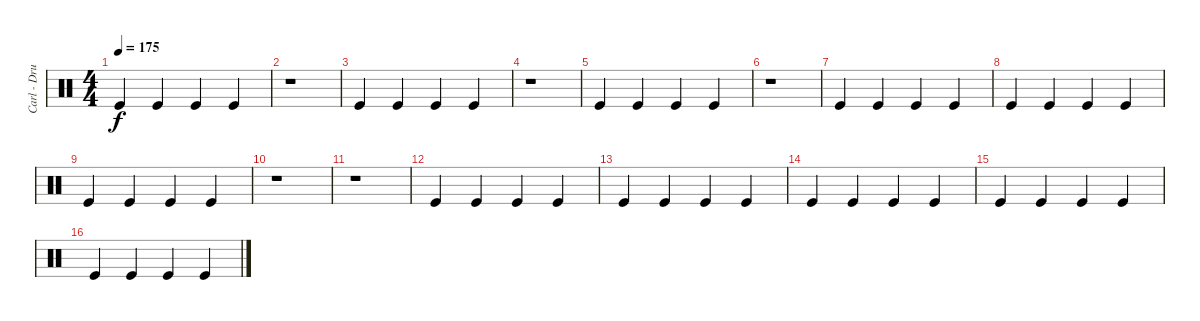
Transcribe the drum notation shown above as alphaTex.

\track ("Carl - Drums I" "Carl - Dru") {instrument percussion}
\staff {score}
\articulation defaults
\ts (4 4)
\tempo 175
\clef neutral
\ks c "Kick (hit)".4{dy f} "Kick (hit)".4 "Kick (hit)".4 "Kick (hit)".4
|
r.1 |
"Kick (hit)".4 "Kick (hit)".4 "Kick (hit)".4 "Kick (hit)".4 |
r.1 |
"Kick (hit)".4 "Kick (hit)".4 "Kick (hit)".4 "Kick (hit)".4 |
r.1 |
"Kick (hit)".4 "Kick (hit)".4 "Kick (hit)".4 "Kick (hit)".4 |
"Kick (hit)".4 "Kick (hit)".4 "Kick (hit)".4 "Kick (hit)".4 |
"Kick (hit)".4 "Kick (hit)".4 "Kick (hit)".4 "Kick (hit)".4 |
r.1 |
r.1 |
"Kick (hit)".4 "Kick (hit)".4 "Kick (hit)".4 "Kick (hit)".4 |
"Kick (hit)".4 "Kick (hit)".4 "Kick (hit)".4 "Kick (hit)".4 |
"Kick (hit)".4 "Kick (hit)".4 "Kick (hit)".4 "Kick (hit)".4 |
"Kick (hit)".4 "Kick (hit)".4 "Kick (hit)".4 "Kick (hit)".4 |
"Kick (hit)".4 "Kick (hit)".4 "Kick (hit)".4 "Kick (hit)".4
